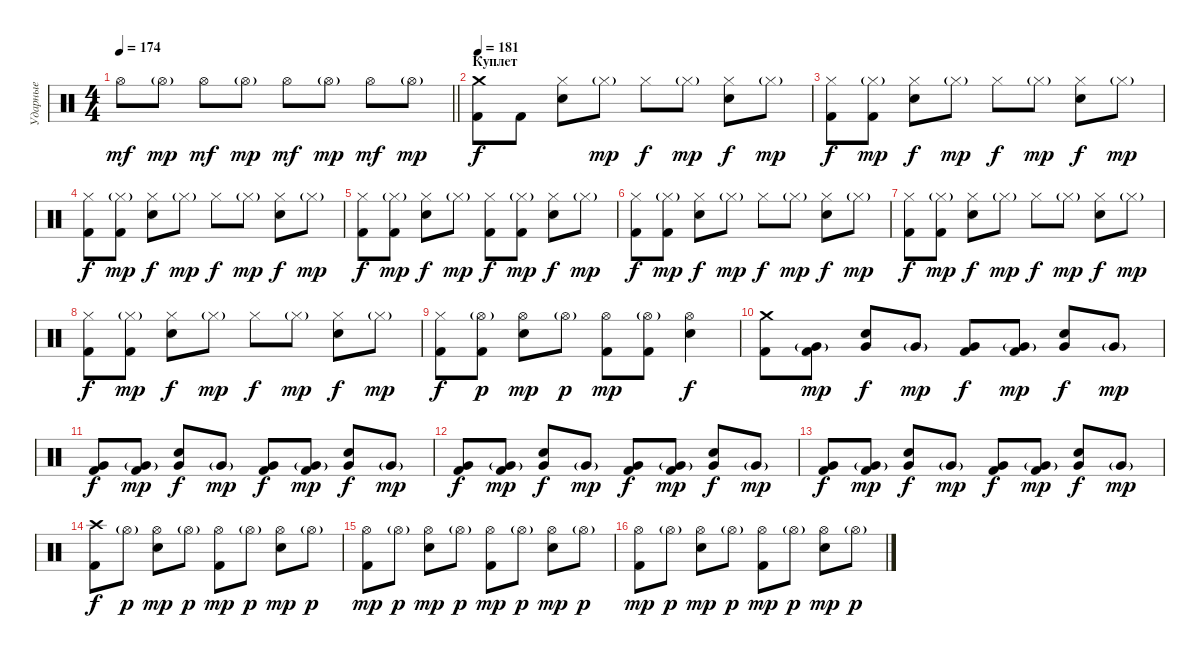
\track ("Ударные" "Ударные") {instrument percussion}
\staff {score}
\articulation defaults
\ts (4 4)
\tempo 174
\clef neutral
\barLineRight lightlight
\ks c "Hi-Hat (open)".8{dy mf} "Hi-Hat (open)"{g}.8{dy mp} "Hi-Hat (open)".8{dy mf} "Hi-Hat (open)"{g}.8{dy mp} "Hi-Hat (open)".8{dy mf} "Hi-Hat (open)"{g}.8{dy mp} "Hi-Hat (open)".8{dy mf} "Hi-Hat (open)"{g}.8{dy mp}
|
\section ("" "Куплет")
\tempo 181
("Crash medium (hit)" "Kick (hit) 2").8{dy f} "Kick (hit) 2".8 ("Hi-Hat (closed)" "Electric Snare (hit)").8 "Hi-Hat (closed)"{g}.8{dy mp} "Hi-Hat (closed)".8{dy f} "Hi-Hat (closed)"{g}.8{dy mp} ("Hi-Hat (closed)" "Electric Snare (hit)").8{dy f} "Hi-Hat (closed)"{g}.8{dy mp} |
("Hi-Hat (closed)" "Kick (hit) 2").8{dy f} ("Hi-Hat (closed)"{g} "Kick (hit) 2").8{dy mp} ("Hi-Hat (closed)" "Electric Snare (hit)").8{dy f} "Hi-Hat (closed)"{g}.8{dy mp} "Hi-Hat (closed)".8{dy f} "Hi-Hat (closed)"{g}.8{dy mp} ("Hi-Hat (closed)" "Electric Snare (hit)").8{dy f} "Hi-Hat (closed)"{g}.8{dy mp} |
("Hi-Hat (closed)" "Kick (hit) 2").8{dy f} ("Hi-Hat (closed)"{g} "Kick (hit) 2").8{dy mp} ("Hi-Hat (closed)" "Electric Snare (hit)").8{dy f} "Hi-Hat (closed)"{g}.8{dy mp} "Hi-Hat (closed)".8{dy f} "Hi-Hat (closed)"{g}.8{dy mp} ("Hi-Hat (closed)" "Electric Snare (hit)").8{dy f} "Hi-Hat (closed)"{g}.8{dy mp} |
("Hi-Hat (closed)" "Kick (hit) 2").8{dy f} ("Hi-Hat (closed)"{g} "Kick (hit) 2").8{dy mp} ("Hi-Hat (closed)" "Electric Snare (hit)").8{dy f} "Hi-Hat (closed)"{g}.8{dy mp} ("Hi-Hat (closed)" "Kick (hit) 2").8{dy f} ("Hi-Hat (closed)"{g} "Kick (hit) 2").8{dy mp} ("Hi-Hat (closed)" "Electric Snare (hit)").8{dy f} "Hi-Hat (closed)"{g}.8{dy mp} |
("Hi-Hat (closed)" "Kick (hit) 2").8{dy f} ("Hi-Hat (closed)"{g} "Kick (hit) 2").8{dy mp} ("Hi-Hat (closed)" "Electric Snare (hit)").8{dy f} "Hi-Hat (closed)"{g}.8{dy mp} "Hi-Hat (closed)".8{dy f} "Hi-Hat (closed)"{g}.8{dy mp} ("Hi-Hat (closed)" "Electric Snare (hit)").8{dy f} "Hi-Hat (closed)"{g}.8{dy mp} |
("Hi-Hat (closed)" "Kick (hit) 2").8{dy f} ("Hi-Hat (closed)"{g} "Kick (hit) 2").8{dy mp} ("Hi-Hat (closed)" "Electric Snare (hit)").8{dy f} "Hi-Hat (closed)"{g}.8{dy mp} "Hi-Hat (closed)".8{dy f} "Hi-Hat (closed)"{g}.8{dy mp} ("Hi-Hat (closed)" "Electric Snare (hit)").8{dy f} "Hi-Hat (closed)"{g}.8{dy mp} |
("Hi-Hat (closed)" "Kick (hit) 2").8{dy f} ("Hi-Hat (closed)"{g} "Kick (hit) 2").8{dy mp} ("Hi-Hat (closed)" "Electric Snare (hit)").8{dy f} "Hi-Hat (closed)"{g}.8{dy mp} "Hi-Hat (closed)".8{dy f} "Hi-Hat (closed)"{g}.8{dy mp} ("Hi-Hat (closed)" "Electric Snare (hit)").8{dy f} "Hi-Hat (closed)"{g}.8{dy mp} |
("Hi-Hat (closed)" "Kick (hit) 2").8{dy f} ("Hi-Hat (open)"{g} "Kick (hit) 2").8{dy p} ("Hi-Hat (open)" "Electric Snare (hit)").8{dy mp} "Hi-Hat (open)"{g}.8{dy p} ("Hi-Hat (open)" "Kick (hit) 2").8{dy mp} ("Hi-Hat (open)"{g} "Kick (hit) 2").8 ("Hi-Hat (open)" "Electric Snare (hit)").4{dy f} |
("Crash medium (hit)" "Kick (hit) 2").8 ("Very Low Tom (hit)"{g} "Kick (hit) 2").8{dy mp} ("Very Low Tom (hit)" "Electric Snare (hit)").8{dy f} "Very Low Tom (hit)"{g}.8{dy mp} ("Very Low Tom (hit)" "Kick (hit) 2").8{dy f} ("Very Low Tom (hit)"{g} "Kick (hit) 2").8{dy mp} ("Very Low Tom (hit)" "Electric Snare (hit)").8{dy f} "Very Low Tom (hit)"{g}.8{dy mp} |
("Very Low Tom (hit)" "Kick (hit) 2").8{dy f} ("Very Low Tom (hit)"{g} "Kick (hit) 2").8{dy mp} ("Very Low Tom (hit)" "Electric Snare (hit)").8{dy f} "Very Low Tom (hit)"{g}.8{dy mp} ("Very Low Tom (hit)" "Kick (hit) 2").8{dy f} ("Very Low Tom (hit)"{g} "Kick (hit) 2").8{dy mp} ("Very Low Tom (hit)" "Electric Snare (hit)").8{dy f} "Very Low Tom (hit)"{g}.8{dy mp} |
("Very Low Tom (hit)" "Kick (hit) 2").8{dy f} ("Very Low Tom (hit)"{g} "Kick (hit) 2").8{dy mp} ("Very Low Tom (hit)" "Electric Snare (hit)").8{dy f} "Very Low Tom (hit)"{g}.8{dy mp} ("Very Low Tom (hit)" "Kick (hit) 2").8{dy f} ("Very Low Tom (hit)"{g} "Kick (hit) 2").8{dy mp} ("Very Low Tom (hit)" "Electric Snare (hit)").8{dy f} "Very Low Tom (hit)"{g}.8{dy mp} |
("Very Low Tom (hit)" "Kick (hit) 2").8{dy f} ("Very Low Tom (hit)"{g} "Kick (hit) 2").8{dy mp} ("Very Low Tom (hit)" "Electric Snare (hit)").8{dy f} "Very Low Tom (hit)"{g}.8{dy mp} ("Very Low Tom (hit)" "Kick (hit) 2").8{dy f} ("Very Low Tom (hit)"{g} "Kick (hit) 2").8{dy mp} ("Very Low Tom (hit)" "Electric Snare (hit)").8{dy f} "Very Low Tom (hit)"{g}.8{dy mp} |
("Crash high (hit)" "Kick (hit) 2").8{dy f} "Hi-Hat (open)"{g}.8{dy p} ("Hi-Hat (open)" "Electric Snare (hit)").8{dy mp} "Hi-Hat (open)"{g}.8{dy p} ("Hi-Hat (open)" "Kick (hit) 2").8{dy mp} "Hi-Hat (open)"{g}.8{dy p} ("Hi-Hat (open)" "Electric Snare (hit)").8{dy mp} "Hi-Hat (open)"{g}.8{dy p} |
("Hi-Hat (open)" "Kick (hit) 2").8{dy mp} "Hi-Hat (open)"{g}.8{dy p} ("Hi-Hat (open)" "Electric Snare (hit)").8{dy mp} "Hi-Hat (open)"{g}.8{dy p} ("Hi-Hat (open)" "Kick (hit) 2").8{dy mp} "Hi-Hat (open)"{g}.8{dy p} ("Hi-Hat (open)" "Electric Snare (hit)").8{dy mp} "Hi-Hat (open)"{g}.8{dy p} |
("Hi-Hat (open)" "Kick (hit) 2").8{dy mp} "Hi-Hat (open)"{g}.8{dy p} ("Hi-Hat (open)" "Electric Snare (hit)").8{dy mp} "Hi-Hat (open)"{g}.8{dy p} ("Hi-Hat (open)" "Kick (hit) 2").8{dy mp} "Hi-Hat (open)"{g}.8{dy p} ("Hi-Hat (open)" "Electric Snare (hit)").8{dy mp} "Hi-Hat (open)"{g}.8{dy p}
